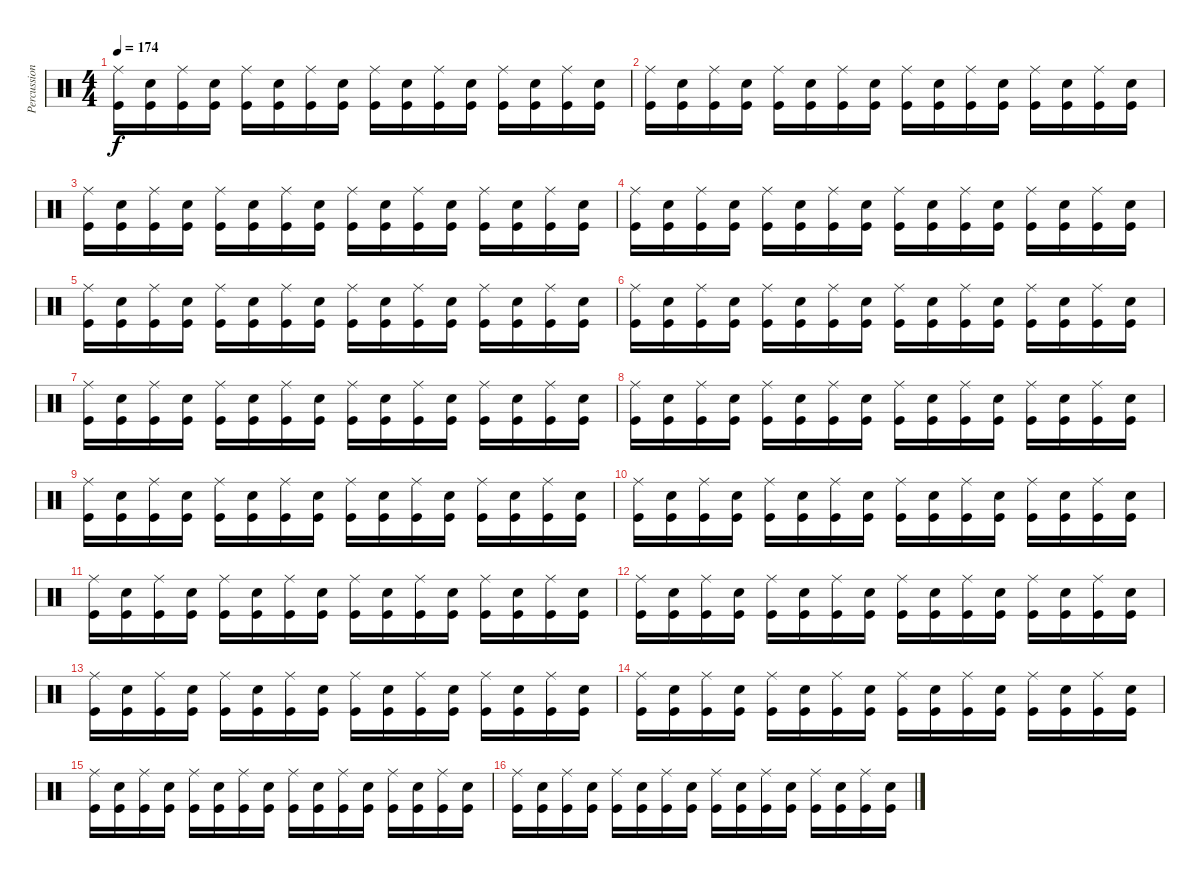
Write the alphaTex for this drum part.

\track ("Percussion" "Percussion") {instrument percussion}
\staff {score}
\articulation defaults
\ts (4 4)
\tempo 174
\clef neutral
\ks c
("Ride (middle)" "Kick (hit)").16{dy f} ("Electric Snare (hit)" "Kick (hit)").16 ("Ride (middle)" "Kick (hit)").16 ("Electric Snare (hit)" "Kick (hit)").16 ("Ride (middle)" "Kick (hit)").16 ("Electric Snare (hit)" "Kick (hit)").16 ("Ride (middle)" "Kick (hit)").16 ("Electric Snare (hit)" "Kick (hit)").16 ("Ride (middle)" "Kick (hit)").16 ("Electric Snare (hit)" "Kick (hit)").16 ("Ride (middle)" "Kick (hit)").16 ("Electric Snare (hit)" "Kick (hit)").16 ("Ride (middle)" "Kick (hit)").16 ("Electric Snare (hit)" "Kick (hit)").16 ("Ride (middle)" "Kick (hit)").16 ("Electric Snare (hit)" "Kick (hit)").16 |
("Ride (middle)" "Kick (hit)").16 ("Electric Snare (hit)" "Kick (hit)").16 ("Ride (middle)" "Kick (hit)").16 ("Electric Snare (hit)" "Kick (hit)").16 ("Ride (middle)" "Kick (hit)").16 ("Electric Snare (hit)" "Kick (hit)").16 ("Ride (middle)" "Kick (hit)").16 ("Electric Snare (hit)" "Kick (hit)").16 ("Ride (middle)" "Kick (hit)").16 ("Electric Snare (hit)" "Kick (hit)").16 ("Ride (middle)" "Kick (hit)").16 ("Electric Snare (hit)" "Kick (hit)").16 ("Ride (middle)" "Kick (hit)").16 ("Electric Snare (hit)" "Kick (hit)").16 ("Ride (middle)" "Kick (hit)").16 ("Electric Snare (hit)" "Kick (hit)").16 |
("Ride (middle)" "Kick (hit)").16 ("Electric Snare (hit)" "Kick (hit)").16 ("Ride (middle)" "Kick (hit)").16 ("Electric Snare (hit)" "Kick (hit)").16 ("Ride (middle)" "Kick (hit)").16 ("Electric Snare (hit)" "Kick (hit)").16 ("Ride (middle)" "Kick (hit)").16 ("Electric Snare (hit)" "Kick (hit)").16 ("Ride (middle)" "Kick (hit)").16 ("Electric Snare (hit)" "Kick (hit)").16 ("Ride (middle)" "Kick (hit)").16 ("Electric Snare (hit)" "Kick (hit)").16 ("Ride (middle)" "Kick (hit)").16 ("Electric Snare (hit)" "Kick (hit)").16 ("Ride (middle)" "Kick (hit)").16 ("Electric Snare (hit)" "Kick (hit)").16 |
("Ride (middle)" "Kick (hit)").16 ("Electric Snare (hit)" "Kick (hit)").16 ("Ride (middle)" "Kick (hit)").16 ("Electric Snare (hit)" "Kick (hit)").16 ("Ride (middle)" "Kick (hit)").16 ("Electric Snare (hit)" "Kick (hit)").16 ("Ride (middle)" "Kick (hit)").16 ("Electric Snare (hit)" "Kick (hit)").16 ("Ride (middle)" "Kick (hit)").16 ("Electric Snare (hit)" "Kick (hit)").16 ("Ride (middle)" "Kick (hit)").16 ("Electric Snare (hit)" "Kick (hit)").16 ("Ride (middle)" "Kick (hit)").16 ("Electric Snare (hit)" "Kick (hit)").16 ("Ride (middle)" "Kick (hit)").16 ("Electric Snare (hit)" "Kick (hit)").16 |
("Ride (middle)" "Kick (hit)").16 ("Electric Snare (hit)" "Kick (hit)").16 ("Ride (middle)" "Kick (hit)").16 ("Electric Snare (hit)" "Kick (hit)").16 ("Ride (middle)" "Kick (hit)").16 ("Electric Snare (hit)" "Kick (hit)").16 ("Ride (middle)" "Kick (hit)").16 ("Electric Snare (hit)" "Kick (hit)").16 ("Ride (middle)" "Kick (hit)").16 ("Electric Snare (hit)" "Kick (hit)").16 ("Ride (middle)" "Kick (hit)").16 ("Electric Snare (hit)" "Kick (hit)").16 ("Ride (middle)" "Kick (hit)").16 ("Electric Snare (hit)" "Kick (hit)").16 ("Ride (middle)" "Kick (hit)").16 ("Electric Snare (hit)" "Kick (hit)").16 |
("Ride (middle)" "Kick (hit)").16 ("Electric Snare (hit)" "Kick (hit)").16 ("Ride (middle)" "Kick (hit)").16 ("Electric Snare (hit)" "Kick (hit)").16 ("Ride (middle)" "Kick (hit)").16 ("Electric Snare (hit)" "Kick (hit)").16 ("Ride (middle)" "Kick (hit)").16 ("Electric Snare (hit)" "Kick (hit)").16 ("Ride (middle)" "Kick (hit)").16 ("Electric Snare (hit)" "Kick (hit)").16 ("Ride (middle)" "Kick (hit)").16 ("Electric Snare (hit)" "Kick (hit)").16 ("Ride (middle)" "Kick (hit)").16 ("Electric Snare (hit)" "Kick (hit)").16 ("Ride (middle)" "Kick (hit)").16 ("Electric Snare (hit)" "Kick (hit)").16 |
("Ride (middle)" "Kick (hit)").16 ("Electric Snare (hit)" "Kick (hit)").16 ("Ride (middle)" "Kick (hit)").16 ("Electric Snare (hit)" "Kick (hit)").16 ("Ride (middle)" "Kick (hit)").16 ("Electric Snare (hit)" "Kick (hit)").16 ("Ride (middle)" "Kick (hit)").16 ("Electric Snare (hit)" "Kick (hit)").16 ("Ride (middle)" "Kick (hit)").16 ("Electric Snare (hit)" "Kick (hit)").16 ("Ride (middle)" "Kick (hit)").16 ("Electric Snare (hit)" "Kick (hit)").16 ("Ride (middle)" "Kick (hit)").16 ("Electric Snare (hit)" "Kick (hit)").16 ("Ride (middle)" "Kick (hit)").16 ("Electric Snare (hit)" "Kick (hit)").16 |
("Ride (middle)" "Kick (hit)").16 ("Electric Snare (hit)" "Kick (hit)").16 ("Ride (middle)" "Kick (hit)").16 ("Electric Snare (hit)" "Kick (hit)").16 ("Ride (middle)" "Kick (hit)").16 ("Electric Snare (hit)" "Kick (hit)").16 ("Ride (middle)" "Kick (hit)").16 ("Electric Snare (hit)" "Kick (hit)").16 ("Ride (middle)" "Kick (hit)").16 ("Electric Snare (hit)" "Kick (hit)").16 ("Ride (middle)" "Kick (hit)").16 ("Electric Snare (hit)" "Kick (hit)").16 ("Ride (middle)" "Kick (hit)").16 ("Electric Snare (hit)" "Kick (hit)").16 ("Ride (middle)" "Kick (hit)").16 ("Electric Snare (hit)" "Kick (hit)").16 |
("Ride (middle)" "Kick (hit)").16 ("Electric Snare (hit)" "Kick (hit)").16 ("Ride (middle)" "Kick (hit)").16 ("Electric Snare (hit)" "Kick (hit)").16 ("Ride (middle)" "Kick (hit)").16 ("Electric Snare (hit)" "Kick (hit)").16 ("Ride (middle)" "Kick (hit)").16 ("Electric Snare (hit)" "Kick (hit)").16 ("Ride (middle)" "Kick (hit)").16 ("Electric Snare (hit)" "Kick (hit)").16 ("Ride (middle)" "Kick (hit)").16 ("Electric Snare (hit)" "Kick (hit)").16 ("Ride (middle)" "Kick (hit)").16 ("Electric Snare (hit)" "Kick (hit)").16 ("Ride (middle)" "Kick (hit)").16 ("Electric Snare (hit)" "Kick (hit)").16 |
("Ride (middle)" "Kick (hit)").16 ("Electric Snare (hit)" "Kick (hit)").16 ("Ride (middle)" "Kick (hit)").16 ("Electric Snare (hit)" "Kick (hit)").16 ("Ride (middle)" "Kick (hit)").16 ("Electric Snare (hit)" "Kick (hit)").16 ("Ride (middle)" "Kick (hit)").16 ("Electric Snare (hit)" "Kick (hit)").16 ("Ride (middle)" "Kick (hit)").16 ("Electric Snare (hit)" "Kick (hit)").16 ("Ride (middle)" "Kick (hit)").16 ("Electric Snare (hit)" "Kick (hit)").16 ("Ride (middle)" "Kick (hit)").16 ("Electric Snare (hit)" "Kick (hit)").16 ("Ride (middle)" "Kick (hit)").16 ("Electric Snare (hit)" "Kick (hit)").16 |
("Ride (middle)" "Kick (hit)").16 ("Electric Snare (hit)" "Kick (hit)").16 ("Ride (middle)" "Kick (hit)").16 ("Electric Snare (hit)" "Kick (hit)").16 ("Ride (middle)" "Kick (hit)").16 ("Electric Snare (hit)" "Kick (hit)").16 ("Ride (middle)" "Kick (hit)").16 ("Electric Snare (hit)" "Kick (hit)").16 ("Ride (middle)" "Kick (hit)").16 ("Electric Snare (hit)" "Kick (hit)").16 ("Ride (middle)" "Kick (hit)").16 ("Electric Snare (hit)" "Kick (hit)").16 ("Ride (middle)" "Kick (hit)").16 ("Electric Snare (hit)" "Kick (hit)").16 ("Ride (middle)" "Kick (hit)").16 ("Electric Snare (hit)" "Kick (hit)").16 |
("Ride (middle)" "Kick (hit)").16 ("Electric Snare (hit)" "Kick (hit)").16 ("Ride (middle)" "Kick (hit)").16 ("Electric Snare (hit)" "Kick (hit)").16 ("Ride (middle)" "Kick (hit)").16 ("Electric Snare (hit)" "Kick (hit)").16 ("Ride (middle)" "Kick (hit)").16 ("Electric Snare (hit)" "Kick (hit)").16 ("Ride (middle)" "Kick (hit)").16 ("Electric Snare (hit)" "Kick (hit)").16 ("Ride (middle)" "Kick (hit)").16 ("Electric Snare (hit)" "Kick (hit)").16 ("Ride (middle)" "Kick (hit)").16 ("Electric Snare (hit)" "Kick (hit)").16 ("Ride (middle)" "Kick (hit)").16 ("Electric Snare (hit)" "Kick (hit)").16 |
("Ride (middle)" "Kick (hit)").16 ("Electric Snare (hit)" "Kick (hit)").16 ("Ride (middle)" "Kick (hit)").16 ("Electric Snare (hit)" "Kick (hit)").16 ("Ride (middle)" "Kick (hit)").16 ("Electric Snare (hit)" "Kick (hit)").16 ("Ride (middle)" "Kick (hit)").16 ("Electric Snare (hit)" "Kick (hit)").16 ("Ride (middle)" "Kick (hit)").16 ("Electric Snare (hit)" "Kick (hit)").16 ("Ride (middle)" "Kick (hit)").16 ("Electric Snare (hit)" "Kick (hit)").16 ("Ride (middle)" "Kick (hit)").16 ("Electric Snare (hit)" "Kick (hit)").16 ("Ride (middle)" "Kick (hit)").16 ("Electric Snare (hit)" "Kick (hit)").16 |
("Ride (middle)" "Kick (hit)").16 ("Electric Snare (hit)" "Kick (hit)").16 ("Ride (middle)" "Kick (hit)").16 ("Electric Snare (hit)" "Kick (hit)").16 ("Ride (middle)" "Kick (hit)").16 ("Electric Snare (hit)" "Kick (hit)").16 ("Ride (middle)" "Kick (hit)").16 ("Electric Snare (hit)" "Kick (hit)").16 ("Ride (middle)" "Kick (hit)").16 ("Electric Snare (hit)" "Kick (hit)").16 ("Ride (middle)" "Kick (hit)").16 ("Electric Snare (hit)" "Kick (hit)").16 ("Ride (middle)" "Kick (hit)").16 ("Electric Snare (hit)" "Kick (hit)").16 ("Ride (middle)" "Kick (hit)").16 ("Electric Snare (hit)" "Kick (hit)").16 |
("Ride (middle)" "Kick (hit)").16 ("Electric Snare (hit)" "Kick (hit)").16 ("Ride (middle)" "Kick (hit)").16 ("Electric Snare (hit)" "Kick (hit)").16 ("Ride (middle)" "Kick (hit)").16 ("Electric Snare (hit)" "Kick (hit)").16 ("Ride (middle)" "Kick (hit)").16 ("Electric Snare (hit)" "Kick (hit)").16 ("Ride (middle)" "Kick (hit)").16 ("Electric Snare (hit)" "Kick (hit)").16 ("Ride (middle)" "Kick (hit)").16 ("Electric Snare (hit)" "Kick (hit)").16 ("Ride (middle)" "Kick (hit)").16 ("Electric Snare (hit)" "Kick (hit)").16 ("Ride (middle)" "Kick (hit)").16 ("Electric Snare (hit)" "Kick (hit)").16 |
("Ride (middle)" "Kick (hit)").16 ("Electric Snare (hit)" "Kick (hit)").16 ("Ride (middle)" "Kick (hit)").16 ("Electric Snare (hit)" "Kick (hit)").16 ("Ride (middle)" "Kick (hit)").16 ("Electric Snare (hit)" "Kick (hit)").16 ("Ride (middle)" "Kick (hit)").16 ("Electric Snare (hit)" "Kick (hit)").16 ("Ride (middle)" "Kick (hit)").16 ("Electric Snare (hit)" "Kick (hit)").16 ("Ride (middle)" "Kick (hit)").16 ("Electric Snare (hit)" "Kick (hit)").16 ("Ride (middle)" "Kick (hit)").16 ("Electric Snare (hit)" "Kick (hit)").16 ("Ride (middle)" "Kick (hit)").16 ("Electric Snare (hit)" "Kick (hit)").16
